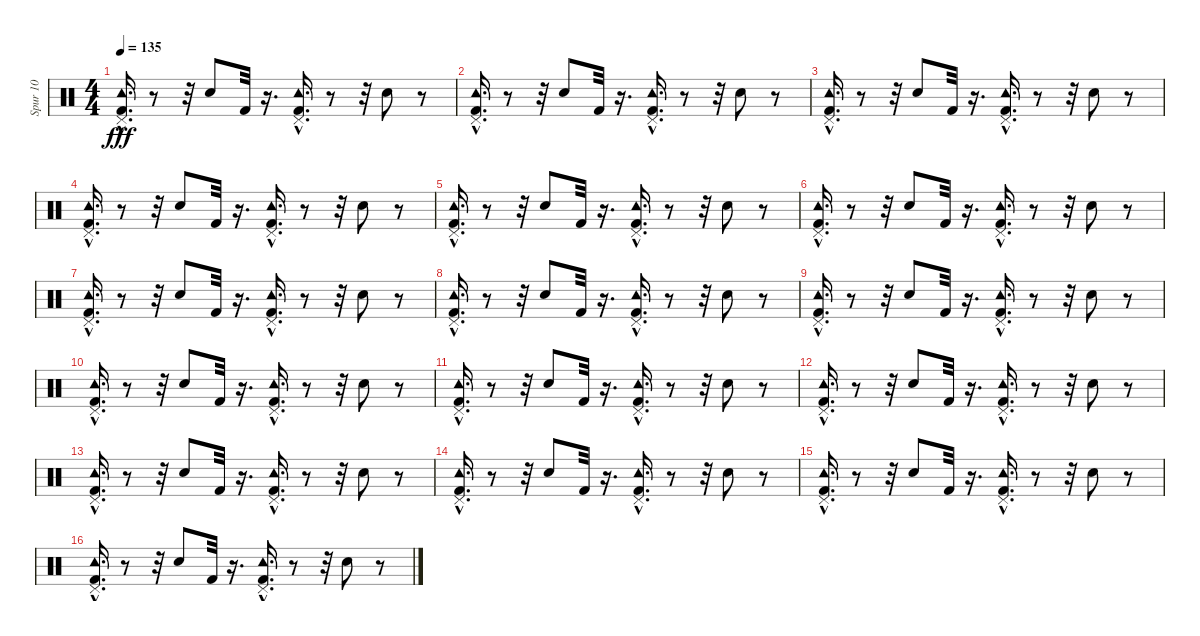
\track ("Spur 10" "Spur 10") {instrument percussion}
\staff {score}
\articulation defaults
\ts (4 4)
\tempo 135
\clef neutral
\ks c
("Kick (hit) 2"{hac} "Pedal Hi-Hat (hit)" "Tambourine (hit)").16{d dy fff} r.8 r.32 "Electric Snare (hit)".8 "Kick (hit) 2".32 r.16{d} ("Pedal Hi-Hat (hit)" "Tambourine (hit)" "Kick (hit) 2"{hac}).16{d} r.8 r.32 "Electric Snare (hit)".8 r.8 |
("Tambourine (hit)" "Kick (hit) 2"{hac} "Pedal Hi-Hat (hit)").16{d} r.8 r.32 "Electric Snare (hit)".8 "Kick (hit) 2".32 r.16{d} ("Kick (hit) 2"{hac} "Tambourine (hit)" "Pedal Hi-Hat (hit)").16{d} r.8 r.32 "Electric Snare (hit)".8 r.8 |
("Tambourine (hit)" "Pedal Hi-Hat (hit)" "Kick (hit) 2"{hac}).16{d} r.8 r.32 "Electric Snare (hit)".8 "Kick (hit) 2".32 r.16{d} ("Tambourine (hit)" "Kick (hit) 2"{hac} "Pedal Hi-Hat (hit)").16{d} r.8 r.32 "Electric Snare (hit)".8 r.8 |
("Kick (hit) 2"{hac} "Pedal Hi-Hat (hit)" "Tambourine (hit)").16{d} r.8 r.32 "Electric Snare (hit)".8 "Kick (hit) 2".32 r.16{d} ("Pedal Hi-Hat (hit)" "Tambourine (hit)" "Kick (hit) 2"{hac}).16{d} r.8 r.32 "Electric Snare (hit)".8 r.8 |
("Pedal Hi-Hat (hit)" "Kick (hit) 2"{hac} "Tambourine (hit)").16{d} r.8 r.32 "Electric Snare (hit)".8 "Kick (hit) 2".32 r.16{d} ("Kick (hit) 2"{hac} "Pedal Hi-Hat (hit)" "Tambourine (hit)").16{d} r.8 r.32 "Electric Snare (hit)".8 r.8 |
("Tambourine (hit)" "Kick (hit) 2"{hac} "Pedal Hi-Hat (hit)").16{d} r.8 r.32 "Electric Snare (hit)".8 "Kick (hit) 2".32 r.16{d} ("Tambourine (hit)" "Kick (hit) 2"{hac} "Pedal Hi-Hat (hit)").16{d} r.8 r.32 "Electric Snare (hit)".8 r.8 |
("Tambourine (hit)" "Pedal Hi-Hat (hit)" "Kick (hit) 2"{hac}).16{d} r.8 r.32 "Electric Snare (hit)".8 "Kick (hit) 2".32 r.16{d} ("Kick (hit) 2"{hac} "Tambourine (hit)" "Pedal Hi-Hat (hit)").16{d} r.8 r.32 "Electric Snare (hit)".8 r.8 |
("Kick (hit) 2"{hac} "Pedal Hi-Hat (hit)" "Tambourine (hit)").16{d} r.8 r.32 "Electric Snare (hit)".8 "Kick (hit) 2".32 r.16{d} ("Kick (hit) 2"{hac} "Pedal Hi-Hat (hit)" "Tambourine (hit)").16{d} r.8 r.32 "Electric Snare (hit)".8 r.8 |
("Tambourine (hit)" "Kick (hit) 2"{hac} "Pedal Hi-Hat (hit)").16{d} r.8 r.32 "Electric Snare (hit)".8 "Kick (hit) 2".32 r.16{d} ("Pedal Hi-Hat (hit)" "Kick (hit) 2"{hac} "Tambourine (hit)").16{d} r.8 r.32 "Electric Snare (hit)".8 r.8 |
("Kick (hit) 2"{hac} "Pedal Hi-Hat (hit)" "Tambourine (hit)").16{d} r.8 r.32 "Electric Snare (hit)".8 "Kick (hit) 2".32 r.16{d} ("Tambourine (hit)" "Kick (hit) 2"{hac} "Pedal Hi-Hat (hit)").16{d} r.8 r.32 "Electric Snare (hit)".8 r.8 |
("Pedal Hi-Hat (hit)" "Tambourine (hit)" "Kick (hit) 2"{hac}).16{d} r.8 r.32 "Electric Snare (hit)".8 "Kick (hit) 2".32 r.16{d} ("Tambourine (hit)" "Pedal Hi-Hat (hit)" "Kick (hit) 2"{hac}).16{d} r.8 r.32 "Electric Snare (hit)".8 r.8 |
("Kick (hit) 2"{hac} "Tambourine (hit)" "Pedal Hi-Hat (hit)").16{d} r.8 r.32 "Electric Snare (hit)".8 "Kick (hit) 2".32 r.16{d} ("Pedal Hi-Hat (hit)" "Tambourine (hit)" "Kick (hit) 2"{hac}).16{d} r.8 r.32 "Electric Snare (hit)".8 r.8 |
("Kick (hit) 2"{hac} "Pedal Hi-Hat (hit)" "Tambourine (hit)").16{d} r.8 r.32 "Electric Snare (hit)".8 "Kick (hit) 2".32 r.16{d} ("Pedal Hi-Hat (hit)" "Kick (hit) 2"{hac} "Tambourine (hit)").16{d} r.8 r.32 "Electric Snare (hit)".8 r.8 |
("Kick (hit) 2"{hac} "Tambourine (hit)" "Pedal Hi-Hat (hit)").16{d} r.8 r.32 "Electric Snare (hit)".8 "Kick (hit) 2".32 r.16{d} ("Kick (hit) 2"{hac} "Pedal Hi-Hat (hit)" "Tambourine (hit)").16{d} r.8 r.32 "Electric Snare (hit)".8 r.8 |
("Tambourine (hit)" "Pedal Hi-Hat (hit)" "Kick (hit) 2"{hac}).16{d} r.8 r.32 "Electric Snare (hit)".8 "Kick (hit) 2".32 r.16{d} ("Pedal Hi-Hat (hit)" "Kick (hit) 2"{hac} "Tambourine (hit)").16{d} r.8 r.32 "Electric Snare (hit)".8 r.8 |
("Tambourine (hit)" "Pedal Hi-Hat (hit)" "Kick (hit) 2"{hac}).16{d} r.8 r.32 "Electric Snare (hit)".8 "Kick (hit) 2".32 r.16{d} ("Kick (hit) 2"{hac} "Tambourine (hit)" "Pedal Hi-Hat (hit)").16{d} r.8 r.32 "Electric Snare (hit)".8 r.8
